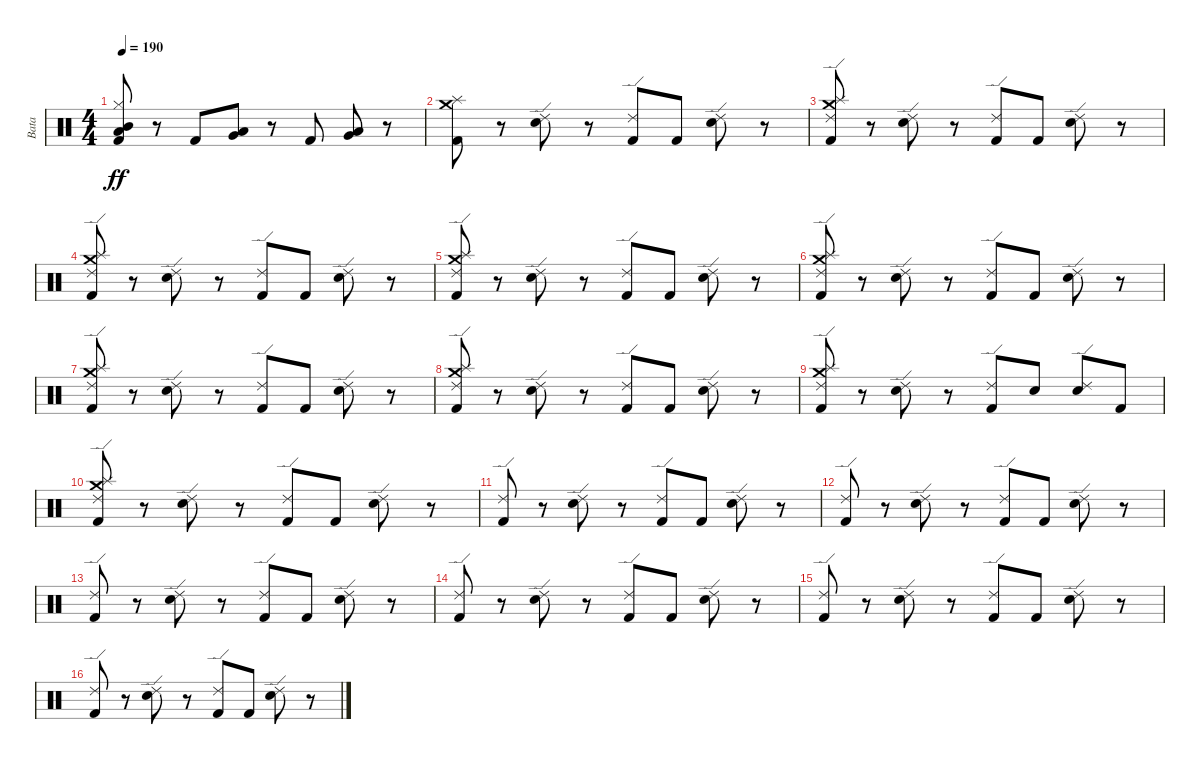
\track ("Bata" "Bata") {instrument percussion}
\staff {score}
\articulation defaults
\ts (4 4)
\tempo 190
\clef neutral
\ks c
("Mid Tom (hit)" "Low Tom (hit)" "Hi-Hat (closed)" "Kick (hit) 2").8{dy ff} r.8 "Kick (hit) 2".8 ("Very Low Tom (hit)" "Low Tom (hit)").8 r.8 "Kick (hit) 2".8 ("Very Low Tom (hit)" "Low Floor Tom (hit)").8 r.8 |
("Crash medium (hit)" "Splash (hit)" "Kick (hit) 2").8 r.8 ("Snare (hit) 2" "Ride (edge) 2").8 r.8 ("Kick (hit) 2" "Ride (edge) 2").8 "Kick (hit) 2".8 ("Ride (edge) 2" "Snare (hit) 2").8 r.8 |
("Splash (hit)" "Crash medium (hit)" "Ride (edge) 2" "Kick (hit) 2").8 r.8 ("Snare (hit) 2" "Ride (edge) 2").8 r.8 ("Ride (edge) 2" "Kick (hit) 2").8 "Kick (hit) 2".8 ("Ride (edge) 2" "Snare (hit) 2").8 r.8 |
("Kick (hit) 2" "Ride (edge) 2" "Crash medium (hit)" "Splash (hit)").8 r.8 ("Snare (hit) 2" "Ride (edge) 2").8 r.8 ("Ride (edge) 2" "Kick (hit) 2").8 "Kick (hit) 2".8 ("Snare (hit) 2" "Ride (edge) 2").8 r.8 |
("Kick (hit) 2" "Ride (edge) 2" "Crash medium (hit)" "Splash (hit)").8 r.8 ("Ride (edge) 2" "Snare (hit) 2").8 r.8 ("Ride (edge) 2" "Kick (hit) 2").8 "Kick (hit) 2".8 ("Snare (hit) 2" "Ride (edge) 2").8 r.8 |
("Splash (hit)" "Crash medium (hit)" "Ride (edge) 2" "Kick (hit) 2").8 r.8 ("Ride (edge) 2" "Snare (hit) 2").8 r.8 ("Kick (hit) 2" "Ride (edge) 2").8 "Kick (hit) 2".8 ("Snare (hit) 2" "Ride (edge) 2").8 r.8 |
("Splash (hit)" "Crash medium (hit)" "Ride (edge) 2" "Kick (hit) 2").8 r.8 ("Ride (edge) 2" "Snare (hit) 2").8 r.8 ("Kick (hit) 2" "Ride (edge) 2").8 "Kick (hit) 2".8 ("Ride (edge) 2" "Snare (hit) 2").8 r.8 |
("Splash (hit)" "Crash medium (hit)" "Ride (edge) 2" "Kick (hit) 2").8 r.8 ("Snare (hit) 2" "Ride (edge) 2").8 r.8 ("Kick (hit) 2" "Ride (edge) 2").8 "Kick (hit) 2".8 ("Ride (edge) 2" "Snare (hit) 2").8 r.8 |
("Kick (hit) 2" "Ride (edge) 2" "Crash medium (hit)" "Splash (hit)").8 r.8 ("Snare (hit) 2" "Ride (edge) 2").8 r.8 ("Ride (edge) 2" "Kick (hit) 2").8 "Snare (hit) 2".8 ("Ride (edge) 2" "Snare (hit) 2").8 "Kick (hit) 2".8 |
("Kick (hit) 2" "Ride (edge) 2" "Crash medium (hit)" "Splash (hit)").8 r.8 ("Ride (edge) 2" "Snare (hit) 2").8 r.8 ("Ride (edge) 2" "Kick (hit) 2").8 "Kick (hit) 2".8 ("Snare (hit) 2" "Ride (edge) 2").8 r.8 |
("Kick (hit) 2" "Ride (edge) 2").8 r.8 ("Ride (edge) 2" "Snare (hit) 2").8 r.8 ("Kick (hit) 2" "Ride (edge) 2").8 "Kick (hit) 2".8 ("Snare (hit) 2" "Ride (edge) 2").8 r.8 |
("Ride (edge) 2" "Kick (hit) 2").8 r.8 ("Ride (edge) 2" "Snare (hit) 2").8 r.8 ("Kick (hit) 2" "Ride (edge) 2").8 "Kick (hit) 2".8 ("Snare (hit) 2" "Ride (edge) 2").8 r.8 |
("Ride (edge) 2" "Kick (hit) 2").8 r.8 ("Snare (hit) 2" "Ride (edge) 2").8 r.8 ("Kick (hit) 2" "Ride (edge) 2").8 "Kick (hit) 2".8 ("Ride (edge) 2" "Snare (hit) 2").8 r.8 |
("Ride (edge) 2" "Kick (hit) 2").8 r.8 ("Snare (hit) 2" "Ride (edge) 2").8 r.8 ("Ride (edge) 2" "Kick (hit) 2").8 "Kick (hit) 2".8 ("Ride (edge) 2" "Snare (hit) 2").8 r.8 |
("Kick (hit) 2" "Ride (edge) 2").8 r.8 ("Snare (hit) 2" "Ride (edge) 2").8 r.8 ("Ride (edge) 2" "Kick (hit) 2").8 "Kick (hit) 2".8 ("Snare (hit) 2" "Ride (edge) 2").8 r.8 |
("Kick (hit) 2" "Ride (edge) 2").8 r.8 ("Ride (edge) 2" "Snare (hit) 2").8 r.8 ("Ride (edge) 2" "Kick (hit) 2").8 "Kick (hit) 2".8 ("Snare (hit) 2" "Ride (edge) 2").8 r.8
